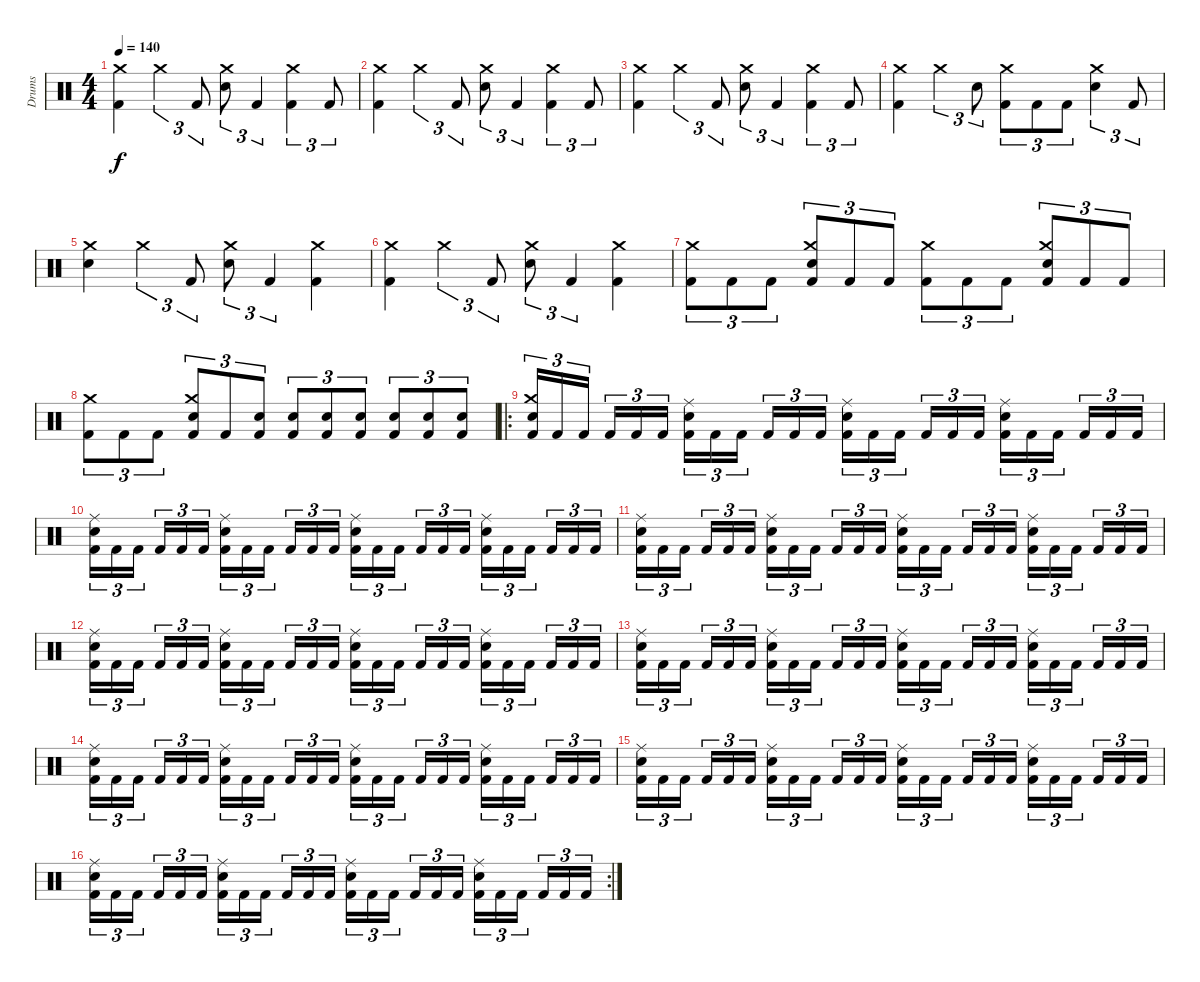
\track ("Drums" "Drums") {instrument percussion}
\staff {score}
\articulation defaults
\ts (4 4)
\tempo 140
\clef neutral
\ks c
("Kick (hit) 2" "Crash medium (hit)").4{dy f} "Crash medium (hit)".4{tu (3 2)} "Kick (hit) 2".8{tu (3 2)} ("Electric Snare (hit)" "Crash medium (hit)").8{tu (3 2)} "Kick (hit) 2".4{tu (3 2)} ("Kick (hit) 2" "Crash medium (hit)").4{tu (3 2)} "Kick (hit) 2".8{tu (3 2)} |
("Kick (hit) 2" "Crash medium (hit)").4 "Crash medium (hit)".4{tu (3 2)} "Kick (hit) 2".8{tu (3 2)} ("Electric Snare (hit)" "Crash medium (hit)").8{tu (3 2)} "Kick (hit) 2".4{tu (3 2)} ("Kick (hit) 2" "Crash medium (hit)").4{tu (3 2)} "Kick (hit) 2".8{tu (3 2)} |
("Kick (hit) 2" "Crash medium (hit)").4 "Crash medium (hit)".4{tu (3 2)} "Kick (hit) 2".8{tu (3 2)} ("Electric Snare (hit)" "Crash medium (hit)").8{tu (3 2)} "Kick (hit) 2".4{tu (3 2)} ("Kick (hit) 2" "Crash medium (hit)").4{tu (3 2)} "Kick (hit) 2".8{tu (3 2)} |
("Kick (hit) 2" "Crash medium (hit)").4 "Crash medium (hit)".4{tu (3 2)} "Electric Snare (hit)".8{tu (3 2)} ("Kick (hit) 2" "Crash medium (hit)").8{tu (3 2)} "Kick (hit) 2".8{tu (3 2)} "Kick (hit) 2".8{tu (3 2)} ("Electric Snare (hit)" "Crash medium (hit)").4{tu (3 2)} "Kick (hit) 2".8{tu (3 2)} |
("Electric Snare (hit)" "Crash medium (hit)").4 "Crash medium (hit)".4{tu (3 2)} "Kick (hit) 2".8{tu (3 2)} ("Electric Snare (hit)" "Crash medium (hit)").8{tu (3 2)} "Kick (hit) 2".4{tu (3 2)} ("Kick (hit) 2" "Crash medium (hit)").4 |
("Kick (hit) 2" "Crash medium (hit)").4 "Crash medium (hit)".4{tu (3 2)} "Kick (hit) 2".8{tu (3 2)} ("Electric Snare (hit)" "Crash medium (hit)").8{tu (3 2)} "Kick (hit) 2".4{tu (3 2)} ("Kick (hit) 2" "Crash medium (hit)").4 |
("Kick (hit) 2" "Crash medium (hit)").8{tu (3 2)} "Kick (hit) 2".8{tu (3 2)} "Kick (hit) 2".8{tu (3 2)} ("Kick (hit) 2" "Electric Snare (hit)" "Crash medium (hit)").8{tu (3 2)} "Kick (hit) 2".8{tu (3 2)} "Kick (hit) 2".8{tu (3 2)} ("Kick (hit) 2" "Crash medium (hit)").8{tu (3 2)} "Kick (hit) 2".8{tu (3 2)} "Kick (hit) 2".8{tu (3 2)} ("Kick (hit) 2" "Electric Snare (hit)" "Crash medium (hit)").8{tu (3 2)} "Kick (hit) 2".8{tu (3 2)} "Kick (hit) 2".8{tu (3 2)} |
("Kick (hit) 2" "Crash medium (hit)").8{tu (3 2)} "Kick (hit) 2".8{tu (3 2)} "Kick (hit) 2".8{tu (3 2)} ("Kick (hit) 2" "Electric Snare (hit)" "Crash medium (hit)").8{tu (3 2)} "Kick (hit) 2".8{tu (3 2)} ("Kick (hit) 2" "Electric Snare (hit)").8{tu (3 2)} ("Kick (hit) 2" "Electric Snare (hit)").8{tu (3 2)} ("Kick (hit) 2" "Electric Snare (hit)").8{tu (3 2)} ("Kick (hit) 2" "Electric Snare (hit)").8{tu (3 2)} ("Kick (hit) 2" "Electric Snare (hit)").8{tu (3 2)} ("Kick (hit) 2" "Electric Snare (hit)").8{tu (3 2)} ("Kick (hit) 2" "Electric Snare (hit)").8{tu (3 2)} |
\ro
("Kick (hit) 2" "Snare (hit) 2" "Crash medium (hit)").16{tu (3 2)} "Kick (hit) 2".16{tu (3 2)} "Kick (hit) 2".16{tu (3 2)} "Kick (hit) 2".16{tu (3 2)} "Kick (hit) 2".16{tu (3 2)} "Kick (hit) 2".16{tu (3 2)} ("Kick (hit) 2" "Snare (hit) 2" "Ride (middle)").16{tu (3 2)} "Kick (hit) 2".16{tu (3 2)} "Kick (hit) 2".16{tu (3 2)} "Kick (hit) 2".16{tu (3 2)} "Kick (hit) 2".16{tu (3 2)} "Kick (hit) 2".16{tu (3 2)} ("Kick (hit) 2" "Snare (hit) 2" "Ride (middle)").16{tu (3 2)} "Kick (hit) 2".16{tu (3 2)} "Kick (hit) 2".16{tu (3 2)} "Kick (hit) 2".16{tu (3 2)} "Kick (hit) 2".16{tu (3 2)} "Kick (hit) 2".16{tu (3 2)} ("Kick (hit) 2" "Snare (hit) 2" "Ride (middle)").16{tu (3 2)} "Kick (hit) 2".16{tu (3 2)} "Kick (hit) 2".16{tu (3 2)} "Kick (hit) 2".16{tu (3 2)} "Kick (hit) 2".16{tu (3 2)} "Kick (hit) 2".16{tu (3 2)} |
("Kick (hit) 2" "Snare (hit) 2" "Ride (middle)").16{tu (3 2)} "Kick (hit) 2".16{tu (3 2)} "Kick (hit) 2".16{tu (3 2)} "Kick (hit) 2".16{tu (3 2)} "Kick (hit) 2".16{tu (3 2)} "Kick (hit) 2".16{tu (3 2)} ("Kick (hit) 2" "Snare (hit) 2" "Ride (middle)").16{tu (3 2)} "Kick (hit) 2".16{tu (3 2)} "Kick (hit) 2".16{tu (3 2)} "Kick (hit) 2".16{tu (3 2)} "Kick (hit) 2".16{tu (3 2)} "Kick (hit) 2".16{tu (3 2)} ("Kick (hit) 2" "Snare (hit) 2" "Ride (middle)").16{tu (3 2)} "Kick (hit) 2".16{tu (3 2)} "Kick (hit) 2".16{tu (3 2)} "Kick (hit) 2".16{tu (3 2)} "Kick (hit) 2".16{tu (3 2)} "Kick (hit) 2".16{tu (3 2)} ("Kick (hit) 2" "Snare (hit) 2" "Ride (middle)").16{tu (3 2)} "Kick (hit) 2".16{tu (3 2)} "Kick (hit) 2".16{tu (3 2)} "Kick (hit) 2".16{tu (3 2)} "Kick (hit) 2".16{tu (3 2)} "Kick (hit) 2".16{tu (3 2)} |
("Kick (hit) 2" "Snare (hit) 2" "Ride (middle)").16{tu (3 2)} "Kick (hit) 2".16{tu (3 2)} "Kick (hit) 2".16{tu (3 2)} "Kick (hit) 2".16{tu (3 2)} "Kick (hit) 2".16{tu (3 2)} "Kick (hit) 2".16{tu (3 2)} ("Kick (hit) 2" "Snare (hit) 2" "Ride (middle)").16{tu (3 2)} "Kick (hit) 2".16{tu (3 2)} "Kick (hit) 2".16{tu (3 2)} "Kick (hit) 2".16{tu (3 2)} "Kick (hit) 2".16{tu (3 2)} "Kick (hit) 2".16{tu (3 2)} ("Kick (hit) 2" "Snare (hit) 2" "Ride (middle)").16{tu (3 2)} "Kick (hit) 2".16{tu (3 2)} "Kick (hit) 2".16{tu (3 2)} "Kick (hit) 2".16{tu (3 2)} "Kick (hit) 2".16{tu (3 2)} "Kick (hit) 2".16{tu (3 2)} ("Kick (hit) 2" "Snare (hit) 2" "Ride (middle)").16{tu (3 2)} "Kick (hit) 2".16{tu (3 2)} "Kick (hit) 2".16{tu (3 2)} "Kick (hit) 2".16{tu (3 2)} "Kick (hit) 2".16{tu (3 2)} "Kick (hit) 2".16{tu (3 2)} |
("Kick (hit) 2" "Snare (hit) 2" "Ride (middle)").16{tu (3 2)} "Kick (hit) 2".16{tu (3 2)} "Kick (hit) 2".16{tu (3 2)} "Kick (hit) 2".16{tu (3 2)} "Kick (hit) 2".16{tu (3 2)} "Kick (hit) 2".16{tu (3 2)} ("Kick (hit) 2" "Snare (hit) 2" "Ride (middle)").16{tu (3 2)} "Kick (hit) 2".16{tu (3 2)} "Kick (hit) 2".16{tu (3 2)} "Kick (hit) 2".16{tu (3 2)} "Kick (hit) 2".16{tu (3 2)} "Kick (hit) 2".16{tu (3 2)} ("Kick (hit) 2" "Snare (hit) 2" "Ride (middle)").16{tu (3 2)} "Kick (hit) 2".16{tu (3 2)} "Kick (hit) 2".16{tu (3 2)} "Kick (hit) 2".16{tu (3 2)} "Kick (hit) 2".16{tu (3 2)} "Kick (hit) 2".16{tu (3 2)} ("Kick (hit) 2" "Snare (hit) 2" "Ride (middle)").16{tu (3 2)} "Kick (hit) 2".16{tu (3 2)} "Kick (hit) 2".16{tu (3 2)} "Kick (hit) 2".16{tu (3 2)} "Kick (hit) 2".16{tu (3 2)} "Kick (hit) 2".16{tu (3 2)} |
("Kick (hit) 2" "Snare (hit) 2" "Ride (middle)").16{tu (3 2)} "Kick (hit) 2".16{tu (3 2)} "Kick (hit) 2".16{tu (3 2)} "Kick (hit) 2".16{tu (3 2)} "Kick (hit) 2".16{tu (3 2)} "Kick (hit) 2".16{tu (3 2)} ("Kick (hit) 2" "Snare (hit) 2" "Ride (middle)").16{tu (3 2)} "Kick (hit) 2".16{tu (3 2)} "Kick (hit) 2".16{tu (3 2)} "Kick (hit) 2".16{tu (3 2)} "Kick (hit) 2".16{tu (3 2)} "Kick (hit) 2".16{tu (3 2)} ("Kick (hit) 2" "Snare (hit) 2" "Ride (middle)").16{tu (3 2)} "Kick (hit) 2".16{tu (3 2)} "Kick (hit) 2".16{tu (3 2)} "Kick (hit) 2".16{tu (3 2)} "Kick (hit) 2".16{tu (3 2)} "Kick (hit) 2".16{tu (3 2)} ("Kick (hit) 2" "Snare (hit) 2" "Ride (middle)").16{tu (3 2)} "Kick (hit) 2".16{tu (3 2)} "Kick (hit) 2".16{tu (3 2)} "Kick (hit) 2".16{tu (3 2)} "Kick (hit) 2".16{tu (3 2)} "Kick (hit) 2".16{tu (3 2)} |
("Kick (hit) 2" "Snare (hit) 2" "Ride (middle)").16{tu (3 2)} "Kick (hit) 2".16{tu (3 2)} "Kick (hit) 2".16{tu (3 2)} "Kick (hit) 2".16{tu (3 2)} "Kick (hit) 2".16{tu (3 2)} "Kick (hit) 2".16{tu (3 2)} ("Kick (hit) 2" "Snare (hit) 2" "Ride (middle)").16{tu (3 2)} "Kick (hit) 2".16{tu (3 2)} "Kick (hit) 2".16{tu (3 2)} "Kick (hit) 2".16{tu (3 2)} "Kick (hit) 2".16{tu (3 2)} "Kick (hit) 2".16{tu (3 2)} ("Kick (hit) 2" "Snare (hit) 2" "Ride (middle)").16{tu (3 2)} "Kick (hit) 2".16{tu (3 2)} "Kick (hit) 2".16{tu (3 2)} "Kick (hit) 2".16{tu (3 2)} "Kick (hit) 2".16{tu (3 2)} "Kick (hit) 2".16{tu (3 2)} ("Kick (hit) 2" "Snare (hit) 2" "Ride (middle)").16{tu (3 2)} "Kick (hit) 2".16{tu (3 2)} "Kick (hit) 2".16{tu (3 2)} "Kick (hit) 2".16{tu (3 2)} "Kick (hit) 2".16{tu (3 2)} "Kick (hit) 2".16{tu (3 2)} |
("Kick (hit) 2" "Snare (hit) 2" "Ride (middle)").16{tu (3 2)} "Kick (hit) 2".16{tu (3 2)} "Kick (hit) 2".16{tu (3 2)} "Kick (hit) 2".16{tu (3 2)} "Kick (hit) 2".16{tu (3 2)} "Kick (hit) 2".16{tu (3 2)} ("Kick (hit) 2" "Snare (hit) 2" "Ride (middle)").16{tu (3 2)} "Kick (hit) 2".16{tu (3 2)} "Kick (hit) 2".16{tu (3 2)} "Kick (hit) 2".16{tu (3 2)} "Kick (hit) 2".16{tu (3 2)} "Kick (hit) 2".16{tu (3 2)} ("Kick (hit) 2" "Snare (hit) 2" "Ride (middle)").16{tu (3 2)} "Kick (hit) 2".16{tu (3 2)} "Kick (hit) 2".16{tu (3 2)} "Kick (hit) 2".16{tu (3 2)} "Kick (hit) 2".16{tu (3 2)} "Kick (hit) 2".16{tu (3 2)} ("Kick (hit) 2" "Snare (hit) 2" "Ride (middle)").16{tu (3 2)} "Kick (hit) 2".16{tu (3 2)} "Kick (hit) 2".16{tu (3 2)} "Kick (hit) 2".16{tu (3 2)} "Kick (hit) 2".16{tu (3 2)} "Kick (hit) 2".16{tu (3 2)} |
\rc 2
("Kick (hit) 2" "Snare (hit) 2" "Ride (middle)").16{tu (3 2)} "Kick (hit) 2".16{tu (3 2)} "Kick (hit) 2".16{tu (3 2)} "Kick (hit) 2".16{tu (3 2)} "Kick (hit) 2".16{tu (3 2)} "Kick (hit) 2".16{tu (3 2)} ("Kick (hit) 2" "Snare (hit) 2" "Ride (middle)").16{tu (3 2)} "Kick (hit) 2".16{tu (3 2)} "Kick (hit) 2".16{tu (3 2)} "Kick (hit) 2".16{tu (3 2)} "Kick (hit) 2".16{tu (3 2)} "Kick (hit) 2".16{tu (3 2)} ("Kick (hit) 2" "Snare (hit) 2" "Ride (middle)").16{tu (3 2)} "Kick (hit) 2".16{tu (3 2)} "Kick (hit) 2".16{tu (3 2)} "Kick (hit) 2".16{tu (3 2)} "Kick (hit) 2".16{tu (3 2)} "Kick (hit) 2".16{tu (3 2)} ("Kick (hit) 2" "Snare (hit) 2" "Ride (middle)").16{tu (3 2)} "Kick (hit) 2".16{tu (3 2)} "Kick (hit) 2".16{tu (3 2)} "Kick (hit) 2".16{tu (3 2)} "Kick (hit) 2".16{tu (3 2)} "Kick (hit) 2".16{tu (3 2)}
